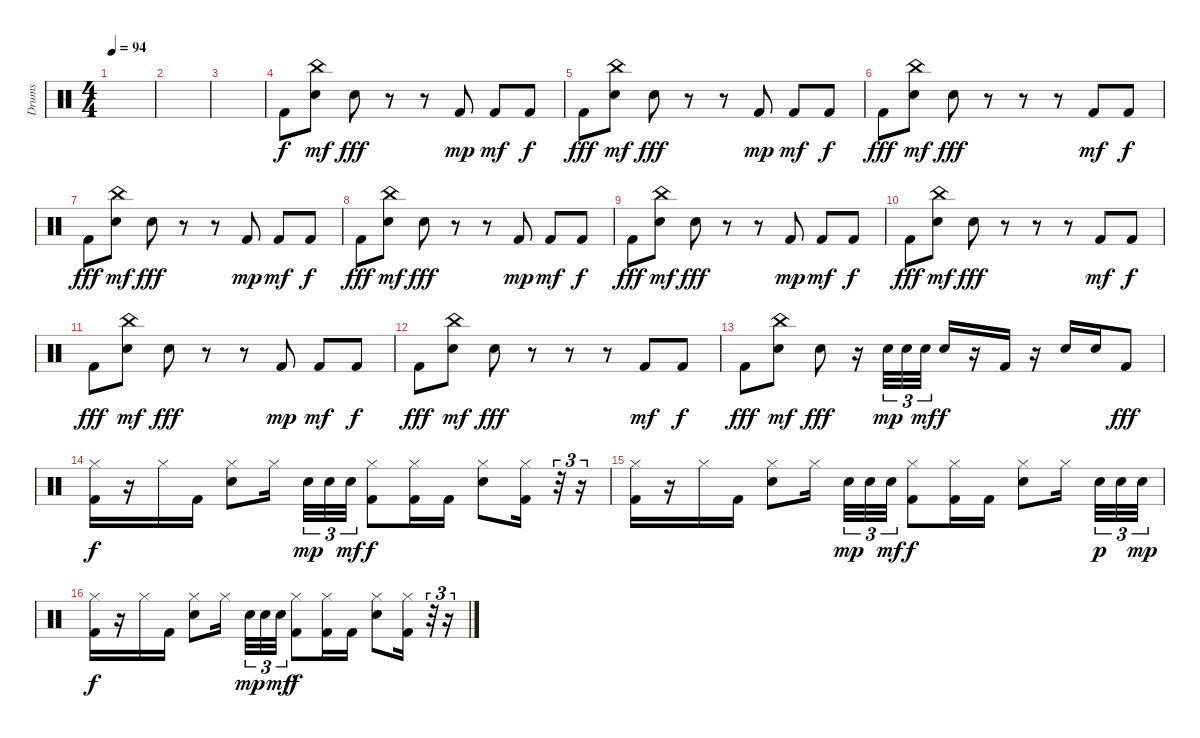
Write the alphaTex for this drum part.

\track ("Drums" "Drums") {instrument percussion}
\staff {score}
\articulation defaults
\ts (4 4)
\tempo 94
\clef neutral
\ks c
|
|
|
"Kick (hit) 2".8 ("China (hit)" "Electric Snare (hit)").8{dy mf} "Snare (hit) 2".8{dy fff} r.8 r.8 "Kick (hit) 2".8{dy mp} "Kick (hit) 2".8{dy mf} "Kick (hit) 2".8{dy f} |
"Kick (hit) 2".8{dy fff} ("China (hit)" "Electric Snare (hit)").8{dy mf} "Snare (hit) 2".8{dy fff} r.8 r.8 "Kick (hit) 2".8{dy mp} "Kick (hit) 2".8{dy mf} "Kick (hit) 2".8{dy f} |
"Kick (hit) 2".8{dy fff} ("China (hit)" "Electric Snare (hit)").8{dy mf} "Snare (hit) 2".8{dy fff} r.8 r.8 r.8 "Kick (hit) 2".8{dy mf} "Kick (hit) 2".8{dy f} |
"Kick (hit) 2".8{dy fff} ("China (hit)" "Electric Snare (hit)").8{dy mf} "Snare (hit) 2".8{dy fff} r.8 r.8 "Kick (hit) 2".8{dy mp} "Kick (hit) 2".8{dy mf} "Kick (hit) 2".8{dy f} |
"Kick (hit) 2".8{dy fff} ("China (hit)" "Electric Snare (hit)").8{dy mf} "Snare (hit) 2".8{dy fff} r.8 r.8 "Kick (hit) 2".8{dy mp} "Kick (hit) 2".8{dy mf} "Kick (hit) 2".8{dy f} |
"Kick (hit) 2".8{dy fff} ("China (hit)" "Electric Snare (hit)").8{dy mf} "Snare (hit) 2".8{dy fff} r.8 r.8 "Kick (hit) 2".8{dy mp} "Kick (hit) 2".8{dy mf} "Kick (hit) 2".8{dy f} |
"Kick (hit) 2".8{dy fff} ("China (hit)" "Electric Snare (hit)").8{dy mf} "Snare (hit) 2".8{dy fff} r.8 r.8 r.8 "Kick (hit) 2".8{dy mf} "Kick (hit) 2".8{dy f} |
"Kick (hit) 2".8{dy fff} ("China (hit)" "Electric Snare (hit)").8{dy mf} "Snare (hit) 2".8{dy fff} r.8 r.8 "Kick (hit) 2".8{dy mp} "Kick (hit) 2".8{dy mf} "Kick (hit) 2".8{dy f} |
"Kick (hit) 2".8{dy fff} ("China (hit)" "Electric Snare (hit)").8{dy mf} "Snare (hit) 2".8{dy fff} r.8 r.8 r.8 "Kick (hit) 2".8{dy mf} "Kick (hit) 2".8{dy f} |
"Kick (hit) 2".8{dy fff} ("China (hit)" "Electric Snare (hit)").8{dy mf} "Snare (hit) 2".8{dy fff} r.16 "Electric Snare (hit)".32{tu (3 2) dy mp} "Electric Snare (hit)".32{tu (3 2)} "Electric Snare (hit)".32{tu (3 2) dy mf} "Electric Snare (hit)".16{dy f} r.16 "Kick (hit) 2".16 r.16 "Electric Snare (hit)".16 "Electric Snare (hit)".16 "Kick (hit) 2".8{dy fff} |
("Hi-Hat (closed)" "Kick (hit) 2").16{dy f} r.16 "Hi-Hat (closed)".16 "Kick (hit) 2".16 ("Hi-Hat (closed)" "Electric Snare (hit)").8 "Hi-Hat (closed)".16 "Electric Snare (hit)".32{tu (3 2) dy mp} "Electric Snare (hit)".32{tu (3 2)} "Electric Snare (hit)".32{tu (3 2) dy mf} ("Hi-Hat (closed)" "Kick (hit) 2").8{dy f} ("Hi-Hat (closed)" "Kick (hit) 2").16 "Kick (hit) 2".16 ("Hi-Hat (closed)" "Electric Snare (hit)").8 ("Hi-Hat (closed)" "Kick (hit) 2").16 r.32{tu (3 2)} r.16{tu (3 2)} |
("Hi-Hat (closed)" "Kick (hit) 2").16 r.16 "Hi-Hat (closed)".16 "Kick (hit) 2".16 ("Hi-Hat (closed)" "Electric Snare (hit)").8 "Hi-Hat (closed)".16 "Electric Snare (hit)".32{tu (3 2) dy mp} "Electric Snare (hit)".32{tu (3 2)} "Electric Snare (hit)".32{tu (3 2) dy mf} ("Hi-Hat (closed)" "Kick (hit) 2").8{dy f} ("Hi-Hat (closed)" "Kick (hit) 2").16 "Kick (hit) 2".16 ("Hi-Hat (closed)" "Electric Snare (hit)").8 "Hi-Hat (closed)".16 "Electric Snare (hit)".32{tu (3 2) dy p} "Electric Snare (hit)".32{tu (3 2)} "Electric Snare (hit)".32{tu (3 2) dy mp} |
("Hi-Hat (closed)" "Kick (hit) 2").16{dy f} r.16 "Hi-Hat (closed)".16 "Kick (hit) 2".16 ("Hi-Hat (closed)" "Electric Snare (hit)").8 "Hi-Hat (closed)".16 "Electric Snare (hit)".32{tu (3 2) dy mp} "Electric Snare (hit)".32{tu (3 2)} "Electric Snare (hit)".32{tu (3 2) dy mf} ("Hi-Hat (closed)" "Kick (hit) 2").8{dy f} ("Hi-Hat (closed)" "Kick (hit) 2").16 "Kick (hit) 2".16 ("Hi-Hat (closed)" "Electric Snare (hit)").8 ("Hi-Hat (closed)" "Kick (hit) 2").16 r.32{tu (3 2)} r.16{tu (3 2)}
